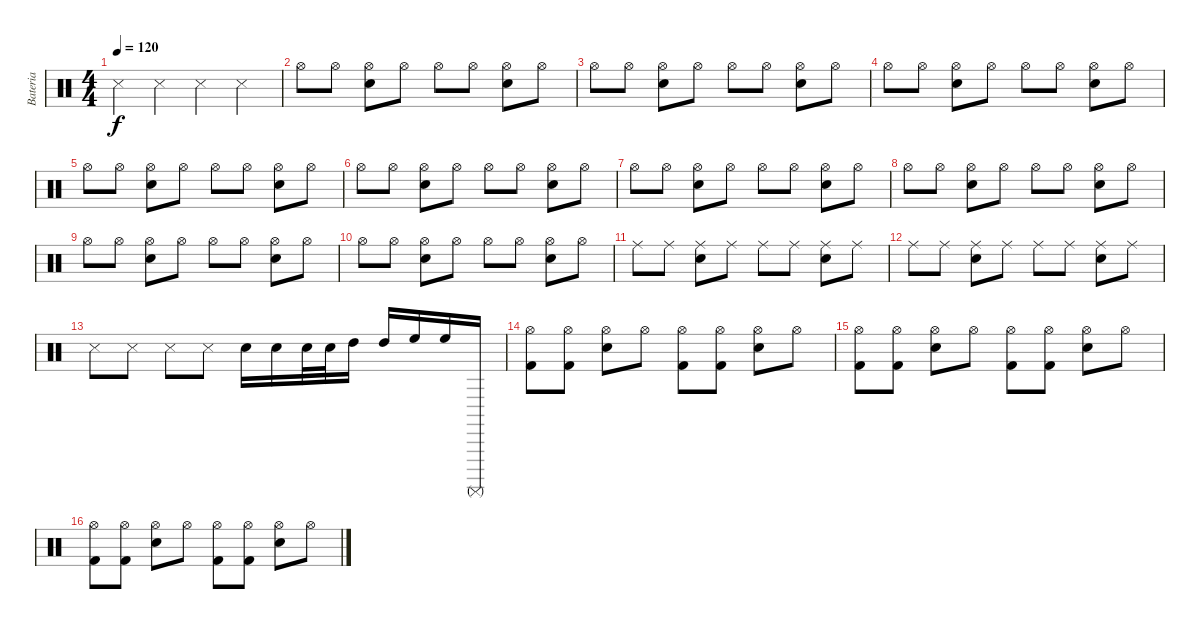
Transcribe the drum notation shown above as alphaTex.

\track ("Bateria" "Bateria") {instrument percussion}
\staff {score}
\articulation defaults
\ts (4 4)
\tempo 120
\clef neutral
\ks c "Snare (side stick) 3".4{dy f} "Snare (side stick) 3".4 "Snare (side stick) 3".4 "Snare (side stick) 3".4
|
"Hi-Hat (open)".8 "Hi-Hat (open)".8 ("Hi-Hat (open)" "Electric Snare (hit)").8 "Hi-Hat (open)".8 "Hi-Hat (open)".8 "Hi-Hat (open)".8 ("Hi-Hat (open)" "Electric Snare (hit)").8 "Hi-Hat (open)".8 |
"Hi-Hat (open)".8 "Hi-Hat (open)".8 ("Hi-Hat (open)" "Electric Snare (hit)").8 "Hi-Hat (open)".8 "Hi-Hat (open)".8 "Hi-Hat (open)".8 ("Hi-Hat (open)" "Electric Snare (hit)").8 "Hi-Hat (open)".8 |
"Hi-Hat (open)".8 "Hi-Hat (open)".8 ("Hi-Hat (open)" "Electric Snare (hit)").8 "Hi-Hat (open)".8 "Hi-Hat (open)".8 "Hi-Hat (open)".8 ("Hi-Hat (open)" "Electric Snare (hit)").8 "Hi-Hat (open)".8 |
"Hi-Hat (open)".8 "Hi-Hat (open)".8 ("Hi-Hat (open)" "Electric Snare (hit)").8 "Hi-Hat (open)".8 "Hi-Hat (open)".8 "Hi-Hat (open)".8 ("Hi-Hat (open)" "Electric Snare (hit)").8 "Hi-Hat (open)".8 |
"Hi-Hat (open)".8 "Hi-Hat (open)".8 ("Hi-Hat (open)" "Electric Snare (hit)").8 "Hi-Hat (open)".8 "Hi-Hat (open)".8 "Hi-Hat (open)".8 ("Hi-Hat (open)" "Electric Snare (hit)").8 "Hi-Hat (open)".8 |
"Hi-Hat (open)".8 "Hi-Hat (open)".8 ("Hi-Hat (open)" "Electric Snare (hit)").8 "Hi-Hat (open)".8 "Hi-Hat (open)".8 "Hi-Hat (open)".8 ("Hi-Hat (open)" "Electric Snare (hit)").8 "Hi-Hat (open)".8 |
"Hi-Hat (open)".8 "Hi-Hat (open)".8 ("Hi-Hat (open)" "Electric Snare (hit)").8 "Hi-Hat (open)".8 "Hi-Hat (open)".8 "Hi-Hat (open)".8 ("Hi-Hat (open)" "Electric Snare (hit)").8 "Hi-Hat (open)".8 |
"Hi-Hat (open)".8 "Hi-Hat (open)".8 ("Hi-Hat (open)" "Electric Snare (hit)").8 "Hi-Hat (open)".8 "Hi-Hat (open)".8 "Hi-Hat (open)".8 ("Hi-Hat (open)" "Electric Snare (hit)").8 "Hi-Hat (open)".8 |
"Hi-Hat (open)".8 "Hi-Hat (open)".8 ("Hi-Hat (open)" "Electric Snare (hit)").8 "Hi-Hat (open)".8 "Hi-Hat (open)".8 "Hi-Hat (open)".8 ("Hi-Hat (open)" "Electric Snare (hit)").8 "Hi-Hat (open)".8 |
"Ride (middle)".8 "Ride (middle)".8 ("Ride (middle)" "Electric Snare (hit)").8 "Ride (middle)".8 "Ride (middle)".8 "Ride (middle)".8 ("Ride (middle)" "Electric Snare (hit)").8 "Ride (middle)".8 |
"Ride (middle)".8 "Ride (middle)".8 ("Ride (middle)" "Electric Snare (hit)").8 "Ride (middle)".8 "Ride (middle)".8 "Ride (middle)".8 ("Ride (middle)" "Electric Snare (hit)").8 "Ride (middle)".8 |
"Snare (side stick) 3".8 "Snare (side stick) 3".8 "Snare (side stick) 3".8 "Snare (side stick) 3".8 "Electric Snare (hit)".16 "Electric Snare (hit)".16 "Electric Snare (hit)".32 "Electric Snare (hit)".32 "High Tom (hit)".16 "High Tom (hit)".16 "High Floor Tom (hit)".16 "High Floor Tom (hit)".16 "Surdo (mute)".16 |
("Hi-Hat (open)" "Kick (hit) 2").8 ("Hi-Hat (open)" "Kick (hit) 2").8 ("Hi-Hat (open)" "Electric Snare (hit)").8 "Hi-Hat (open)".8 ("Hi-Hat (open)" "Kick (hit) 2").8 ("Hi-Hat (open)" "Kick (hit) 2").8 ("Hi-Hat (open)" "Electric Snare (hit)").8 "Hi-Hat (open)".8 |
("Hi-Hat (open)" "Kick (hit) 2").8 ("Hi-Hat (open)" "Kick (hit) 2").8 ("Hi-Hat (open)" "Electric Snare (hit)").8 "Hi-Hat (open)".8 ("Hi-Hat (open)" "Kick (hit) 2").8 ("Hi-Hat (open)" "Kick (hit) 2").8 ("Hi-Hat (open)" "Electric Snare (hit)").8 "Hi-Hat (open)".8 |
("Hi-Hat (open)" "Kick (hit) 2").8 ("Hi-Hat (open)" "Kick (hit) 2").8 ("Hi-Hat (open)" "Electric Snare (hit)").8 "Hi-Hat (open)".8 ("Hi-Hat (open)" "Kick (hit) 2").8 ("Hi-Hat (open)" "Kick (hit) 2").8 ("Hi-Hat (open)" "Electric Snare (hit)").8 "Hi-Hat (open)".8
